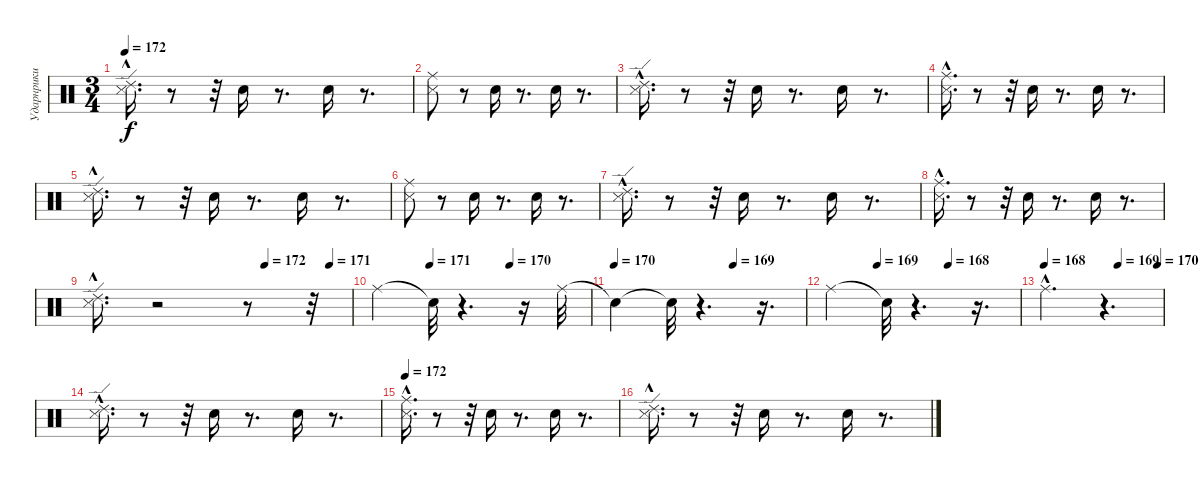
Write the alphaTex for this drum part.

\track ("Ударнрики" "Ударнрики") {instrument percussion}
\staff {score}
\articulation defaults
\ts (3 4)
\tempo 172
\clef neutral
\ks c
("Ride (edge) 2" "Metronome (hit)"{hac}).16{d dy f} r.8 r.32 "Electric Snare (hit)".16 r.8{d} "Electric Snare (hit)".16 r.8{d} |
("Ride (middle)" "Metronome (hit)").8 r.8 "Electric Snare (hit)".16 r.8{d} "Electric Snare (hit)".16 r.8{d} |
("Ride (edge) 2"{hac} "Metronome (hit)"{hac}).16{d} r.8 r.32 "Electric Snare (hit)".16 r.8{d} "Electric Snare (hit)".16 r.8{d} |
("Ride (middle)" "Metronome (hit)"{hac}).16{d} r.8 r.32 "Electric Snare (hit)".16 r.8{d} "Electric Snare (hit)".16 r.8{d} |
("Ride (edge) 2" "Metronome (hit)"{hac}).16{d} r.8 r.32 "Electric Snare (hit)".16 r.8{d} "Electric Snare (hit)".16 r.8{d} |
("Ride (middle)" "Metronome (hit)").8 r.8 "Electric Snare (hit)".16 r.8{d} "Electric Snare (hit)".16 r.8{d} |
("Ride (edge) 2"{hac} "Metronome (hit)"{hac}).16{d} r.8 r.32 "Electric Snare (hit)".16 r.8{d} "Electric Snare (hit)".16 r.8{d} |
("Ride (middle)" "Metronome (hit)"{hac}).16{d} r.8 r.32 "Electric Snare (hit)".16 r.8{d} "Electric Snare (hit)".16 r.8{d} |
\tempo (172 0.6666666666666666)
\tempo (171 0.9166666666666666)
("Ride (edge) 2" "Metronome (hit)"{hac}).16{d} r.2 r.8 r.32 |
\tempo (171 0.25)
\tempo (170 0.625)
"Ride (middle)".4 "Snare (hit)"{t}.32 r.4{d} r.16 "Ride (middle)".32 |
\tempo 170
\tempo (169 0.625)
"Snare (hit)"{t}.4 "Snare (hit)"{t}.32 r.4{d} r.16{d} |
\tempo (169 0.25)
\tempo (168 0.625)
"Ride (middle)".4 "Snare (hit)"{t}.32 r.4{d} r.16{d} |
\tempo 168
\tempo (169 0.625)
\tempo (170 0.9583333333333334)
"Ride (middle)"{hac}.4{d} r.4{d} |
("Ride (edge) 2"{hac} "Metronome (hit)"{hac}).16{d} r.8 r.32 "Electric Snare (hit)".16 r.8{d} "Electric Snare (hit)".16 r.8{d} |
\tempo 172
("Ride (middle)" "Metronome (hit)"{hac}).16{d} r.8 r.32 "Electric Snare (hit)".16 r.8{d} "Electric Snare (hit)".16 r.8{d} |
("Ride (edge) 2" "Metronome (hit)"{hac}).16{d} r.8 r.32 "Electric Snare (hit)".16 r.8{d} "Electric Snare (hit)".16 r.8{d}
